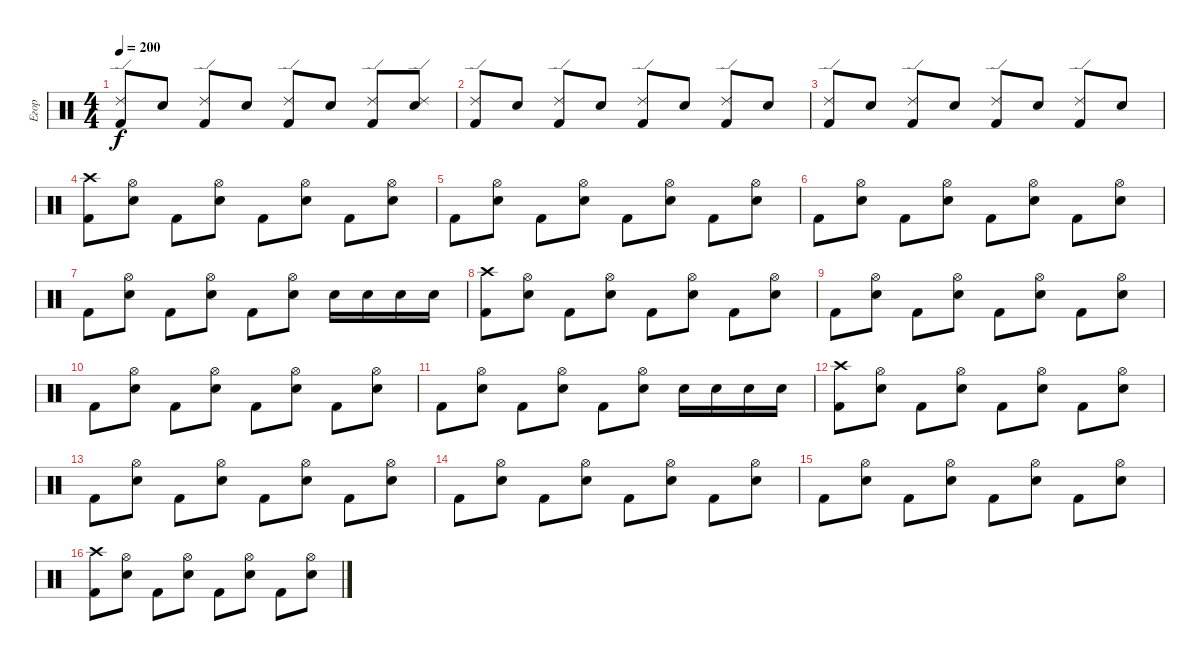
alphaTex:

\track ("Егор" "Егор") {instrument percussion}
\staff {score}
\articulation defaults
\ts (4 4)
\tempo 200
\clef neutral
\ks c
("Kick (hit) 2" "Ride (edge) 2").8{dy f} "Snare (hit) 2".8 ("Kick (hit) 2" "Ride (edge) 2").8 "Snare (hit) 2".8 ("Kick (hit) 2" "Ride (edge) 2").8 "Snare (hit) 2".8 ("Kick (hit) 2" "Ride (edge) 2").8 ("Snare (hit) 2" "Ride (edge) 2").8 |
("Kick (hit) 2" "Ride (edge) 2").8 "Snare (hit) 2".8 ("Kick (hit) 2" "Ride (edge) 2").8 "Snare (hit) 2".8 ("Kick (hit) 2" "Ride (edge) 2").8 "Snare (hit) 2".8 ("Kick (hit) 2" "Ride (edge) 2").8 "Snare (hit) 2".8 |
("Kick (hit) 2" "Ride (edge) 2").8 "Snare (hit) 2".8 ("Kick (hit) 2" "Ride (edge) 2").8 "Snare (hit) 2".8 ("Kick (hit) 2" "Ride (edge) 2").8 "Snare (hit) 2".8 ("Kick (hit) 2" "Ride (edge) 2").8 "Snare (hit) 2".8 |
("Crash high (hit)" "Kick (hit) 2").8 ("Hi-Hat (open)" "Snare (hit) 2").8 "Kick (hit) 2".8 ("Hi-Hat (open)" "Snare (hit) 2").8 "Kick (hit) 2".8 ("Hi-Hat (open)" "Snare (hit) 2").8 "Kick (hit) 2".8 ("Hi-Hat (open)" "Snare (hit) 2").8 |
"Kick (hit) 2".8 ("Hi-Hat (open)" "Snare (hit) 2").8 "Kick (hit) 2".8 ("Hi-Hat (open)" "Snare (hit) 2").8 "Kick (hit) 2".8 ("Hi-Hat (open)" "Snare (hit) 2").8 "Kick (hit) 2".8 ("Hi-Hat (open)" "Snare (hit) 2").8 |
"Kick (hit) 2".8 ("Hi-Hat (open)" "Snare (hit) 2").8 "Kick (hit) 2".8 ("Hi-Hat (open)" "Snare (hit) 2").8 "Kick (hit) 2".8 ("Hi-Hat (open)" "Snare (hit) 2").8 "Kick (hit) 2".8 ("Hi-Hat (open)" "Snare (hit) 2").8 |
"Kick (hit) 2".8 ("Hi-Hat (open)" "Snare (hit) 2").8 "Kick (hit) 2".8 ("Hi-Hat (open)" "Snare (hit) 2").8 "Kick (hit) 2".8 ("Hi-Hat (open)" "Snare (hit) 2").8 "Snare (hit) 2".16 "Snare (hit) 2".16 "Snare (hit) 2".16 "Snare (hit) 2".16 |
("Crash high (hit)" "Kick (hit) 2").8 ("Hi-Hat (open)" "Snare (hit) 2").8 "Kick (hit) 2".8 ("Hi-Hat (open)" "Snare (hit) 2").8 "Kick (hit) 2".8 ("Hi-Hat (open)" "Snare (hit) 2").8 "Kick (hit) 2".8 ("Hi-Hat (open)" "Snare (hit) 2").8 |
"Kick (hit) 2".8 ("Hi-Hat (open)" "Snare (hit) 2").8 "Kick (hit) 2".8 ("Hi-Hat (open)" "Snare (hit) 2").8 "Kick (hit) 2".8 ("Hi-Hat (open)" "Snare (hit) 2").8 "Kick (hit) 2".8 ("Hi-Hat (open)" "Snare (hit) 2").8 |
"Kick (hit) 2".8 ("Hi-Hat (open)" "Snare (hit) 2").8 "Kick (hit) 2".8 ("Hi-Hat (open)" "Snare (hit) 2").8 "Kick (hit) 2".8 ("Hi-Hat (open)" "Snare (hit) 2").8 "Kick (hit) 2".8 ("Hi-Hat (open)" "Snare (hit) 2").8 |
"Kick (hit) 2".8 ("Hi-Hat (open)" "Snare (hit) 2").8 "Kick (hit) 2".8 ("Hi-Hat (open)" "Snare (hit) 2").8 "Kick (hit) 2".8 ("Hi-Hat (open)" "Snare (hit) 2").8 "Snare (hit) 2".16 "Snare (hit) 2".16 "Snare (hit) 2".16 "Snare (hit) 2".16 |
("Crash high (hit)" "Kick (hit) 2").8 ("Hi-Hat (open)" "Snare (hit) 2").8 "Kick (hit) 2".8 ("Hi-Hat (open)" "Snare (hit) 2").8 "Kick (hit) 2".8 ("Hi-Hat (open)" "Snare (hit) 2").8 "Kick (hit) 2".8 ("Hi-Hat (open)" "Snare (hit) 2").8 |
"Kick (hit) 2".8 ("Hi-Hat (open)" "Snare (hit) 2").8 "Kick (hit) 2".8 ("Hi-Hat (open)" "Snare (hit) 2").8 "Kick (hit) 2".8 ("Hi-Hat (open)" "Snare (hit) 2").8 "Kick (hit) 2".8 ("Hi-Hat (open)" "Snare (hit) 2").8 |
"Kick (hit) 2".8 ("Hi-Hat (open)" "Snare (hit) 2").8 "Kick (hit) 2".8 ("Hi-Hat (open)" "Snare (hit) 2").8 "Kick (hit) 2".8 ("Hi-Hat (open)" "Snare (hit) 2").8 "Kick (hit) 2".8 ("Hi-Hat (open)" "Snare (hit) 2").8 |
"Kick (hit) 2".8 ("Hi-Hat (open)" "Snare (hit) 2").8 "Kick (hit) 2".8 ("Hi-Hat (open)" "Snare (hit) 2").8 "Kick (hit) 2".8 ("Hi-Hat (open)" "Snare (hit) 2").8 "Kick (hit) 2".8 ("Hi-Hat (open)" "Snare (hit) 2").8 |
("Crash high (hit)" "Kick (hit) 2").8 ("Hi-Hat (open)" "Snare (hit) 2").8 "Kick (hit) 2".8 ("Hi-Hat (open)" "Snare (hit) 2").8 "Kick (hit) 2".8 ("Hi-Hat (open)" "Snare (hit) 2").8 "Kick (hit) 2".8 ("Hi-Hat (open)" "Snare (hit) 2").8
